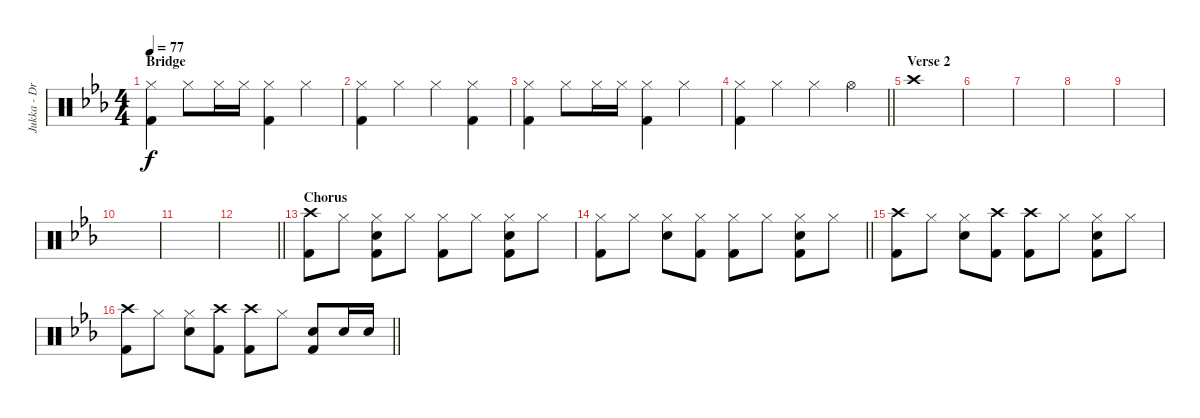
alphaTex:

\track ("Jukka - Drums" "Jukka - Dr") {instrument percussion}
\staff {score}
\articulation defaults
\ts (4 4)
\section ("" "Bridge")
\tempo 77
\clef neutral
\ks cminor
("Hi-Hat (closed)" "Kick (hit) 2").4{dy f} "Hi-Hat (closed)".8 "Hi-Hat (closed)".16 "Hi-Hat (closed)".16 ("Hi-Hat (closed)" "Kick (hit) 2").4 "Hi-Hat (closed)".4 |
("Hi-Hat (closed)" "Kick (hit) 2").4 "Hi-Hat (closed)".4 "Hi-Hat (closed)".4 ("Hi-Hat (closed)" "Kick (hit) 2").4 |
("Hi-Hat (closed)" "Kick (hit) 2").4 "Hi-Hat (closed)".8 "Hi-Hat (closed)".16 "Hi-Hat (closed)".16 ("Hi-Hat (closed)" "Kick (hit) 2").4 "Hi-Hat (closed)".4 |
\barLineRight lightlight
("Hi-Hat (closed)" "Kick (hit) 2").4 "Hi-Hat (closed)".4 "Hi-Hat (closed)".4 "Hi-Hat (open)".4 |
\section ("" "Verse 2")
"Crash high (hit)".1 |
|
|
|
|
|
|
\barLineRight lightlight
|
\section ("" "Chorus")
("Crash high (hit)" "Kick (hit) 2").8 "Hi-Hat (closed)".8 ("Snare (hit) 2" "Hi-Hat (closed)" "Kick (hit) 2").8 "Hi-Hat (closed)".8 ("Hi-Hat (closed)" "Kick (hit) 2").8 "Hi-Hat (closed)".8 ("Hi-Hat (closed)" "Snare (hit) 2" "Kick (hit) 2").8 "Hi-Hat (closed)".8 |
\barLineRight lightlight
("Hi-Hat (closed)" "Kick (hit) 2").8 "Hi-Hat (closed)".8 ("Snare (hit) 2" "Hi-Hat (closed)").8 ("Hi-Hat (closed)" "Kick (hit) 2").8 ("Hi-Hat (closed)" "Kick (hit) 2").8 "Hi-Hat (closed)".8 ("Hi-Hat (closed)" "Snare (hit) 2" "Kick (hit) 2").8 "Hi-Hat (closed)".8 |
("Crash high (hit)" "Kick (hit) 2").8 "Hi-Hat (closed)".8 ("Snare (hit) 2" "Hi-Hat (closed)").8 ("Crash high (hit)" "Kick (hit) 2").8 ("Crash high (hit)" "Kick (hit) 2").8 "Hi-Hat (closed)".8 ("Hi-Hat (closed)" "Snare (hit) 2" "Kick (hit) 2").8 "Hi-Hat (closed)".8 |
\barLineRight lightlight
("Crash high (hit)" "Kick (hit) 2").8 "Hi-Hat (closed)".8 ("Snare (hit) 2" "Hi-Hat (closed)").8 ("Crash high (hit)" "Kick (hit) 2").8 ("Crash high (hit)" "Kick (hit) 2").8 "Hi-Hat (closed)".8 ("Snare (hit) 2" "Kick (hit) 2").8 "Snare (hit) 2".16 "Snare (hit) 2".16
